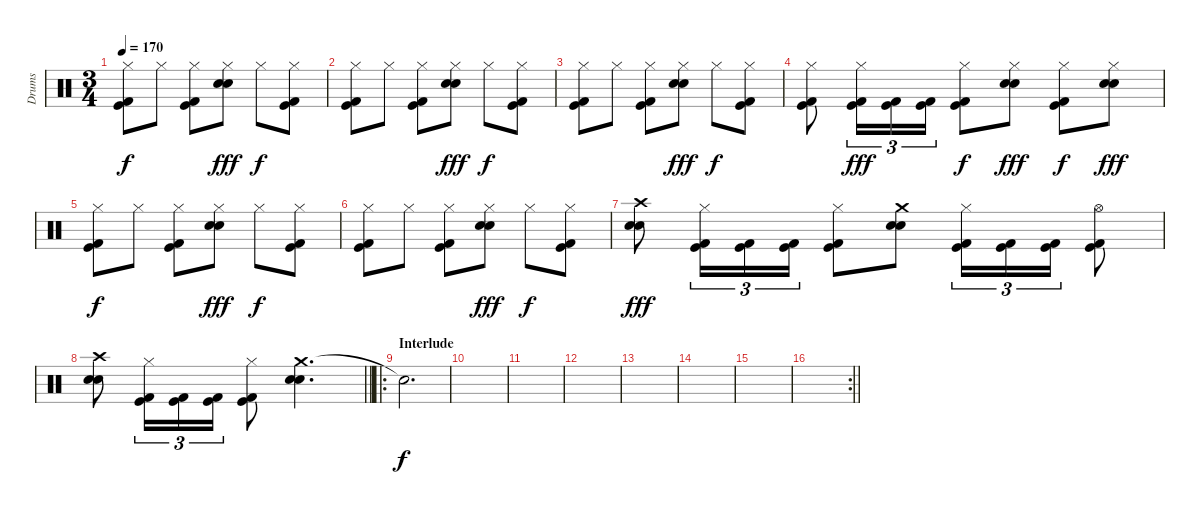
\track ("Drums" "Drums") {instrument percussion}
\staff {score}
\articulation defaults
\ts (3 4)
\tempo 170
\clef neutral
\ks c
("Hi-Hat (closed)" "Kick (hit)" "Kick (hit) 2").8{dy f} "Hi-Hat (closed)".8 ("Hi-Hat (closed)" "Kick (hit)" "Kick (hit) 2").8 ("Hi-Hat (closed)" "Electric Snare (hit)" "Electric Snare (hit)").8{dy fff} "Hi-Hat (closed)".8{dy f} ("Hi-Hat (closed)" "Kick (hit)" "Kick (hit) 2").8 |
("Hi-Hat (closed)" "Kick (hit)" "Kick (hit) 2").8 "Hi-Hat (closed)".8 ("Hi-Hat (closed)" "Kick (hit)" "Kick (hit) 2").8 ("Hi-Hat (closed)" "Electric Snare (hit)" "Electric Snare (hit)").8{dy fff} "Hi-Hat (closed)".8{dy f} ("Hi-Hat (closed)" "Kick (hit)" "Kick (hit) 2").8 |
("Hi-Hat (closed)" "Kick (hit)" "Kick (hit) 2").8 "Hi-Hat (closed)".8 ("Hi-Hat (closed)" "Kick (hit)" "Kick (hit) 2").8 ("Hi-Hat (closed)" "Electric Snare (hit)" "Electric Snare (hit)").8{dy fff} "Hi-Hat (closed)".8{dy f} ("Hi-Hat (closed)" "Kick (hit)" "Kick (hit) 2").8 |
("Hi-Hat (closed)" "Kick (hit)" "Kick (hit) 2").8 ("Hi-Hat (closed)" "Kick (hit)" "Kick (hit) 2").16{tu (3 2) dy fff} ("Kick (hit)" "Kick (hit) 2").16{tu (3 2)} ("Kick (hit)" "Kick (hit) 2").16{tu (3 2)} ("Hi-Hat (closed)" "Kick (hit)" "Kick (hit) 2").8{dy f} ("Hi-Hat (closed)" "Electric Snare (hit)" "Electric Snare (hit)").8{dy fff} ("Hi-Hat (closed)" "Kick (hit)" "Kick (hit) 2").8{dy f} ("Hi-Hat (closed)" "Electric Snare (hit)" "Electric Snare (hit)").8{dy fff} |
("Hi-Hat (closed)" "Kick (hit)" "Kick (hit) 2").8{dy f} "Hi-Hat (closed)".8 ("Hi-Hat (closed)" "Kick (hit)" "Kick (hit) 2").8 ("Hi-Hat (closed)" "Electric Snare (hit)" "Electric Snare (hit)").8{dy fff} "Hi-Hat (closed)".8{dy f} ("Hi-Hat (closed)" "Kick (hit)" "Kick (hit) 2").8 |
("Hi-Hat (closed)" "Kick (hit)" "Kick (hit) 2").8 "Hi-Hat (closed)".8 ("Hi-Hat (closed)" "Kick (hit)" "Kick (hit) 2").8 ("Hi-Hat (closed)" "Electric Snare (hit)" "Electric Snare (hit)").8{dy fff} "Hi-Hat (closed)".8{dy f} ("Hi-Hat (closed)" "Kick (hit)" "Kick (hit) 2").8 |
("Crash high (hit)" "Electric Snare (hit)" "Electric Snare (hit)").8{dy fff} ("Hi-Hat (closed)" "Kick (hit)" "Kick (hit) 2").16{tu (3 2)} ("Kick (hit)" "Kick (hit) 2").16{tu (3 2)} ("Kick (hit)" "Kick (hit) 2").16{tu (3 2)} ("Hi-Hat (closed)" "Kick (hit)" "Kick (hit) 2").8 ("Crash medium (hit)" "Electric Snare (hit)" "Electric Snare (hit)").8 ("Hi-Hat (closed)" "Kick (hit)" "Kick (hit) 2").16{tu (3 2)} ("Kick (hit)" "Kick (hit) 2").16{tu (3 2)} ("Kick (hit)" "Kick (hit) 2").16{tu (3 2)} ("Hi-Hat (open)" "Kick (hit)" "Kick (hit) 2").8 |
\barLineRight lightlight
("Crash high (hit)" "Electric Snare (hit)" "Electric Snare (hit)").8 ("Hi-Hat (closed)" "Kick (hit)" "Kick (hit) 2").16{tu (3 2)} ("Kick (hit)" "Kick (hit) 2").16{tu (3 2)} ("Kick (hit)" "Kick (hit) 2").16{tu (3 2)} ("Hi-Hat (closed)" "Kick (hit)" "Kick (hit) 2").8 ("Crash medium (hit)" "Electric Snare (hit)" "Electric Snare (hit)").4{d} |
\ro
\section ("" "Interlude")
"Snare (hit)"{t}.2{d dy f} |
|
|
|
|
|
|
\rc 2
\barLineRight lightlight
